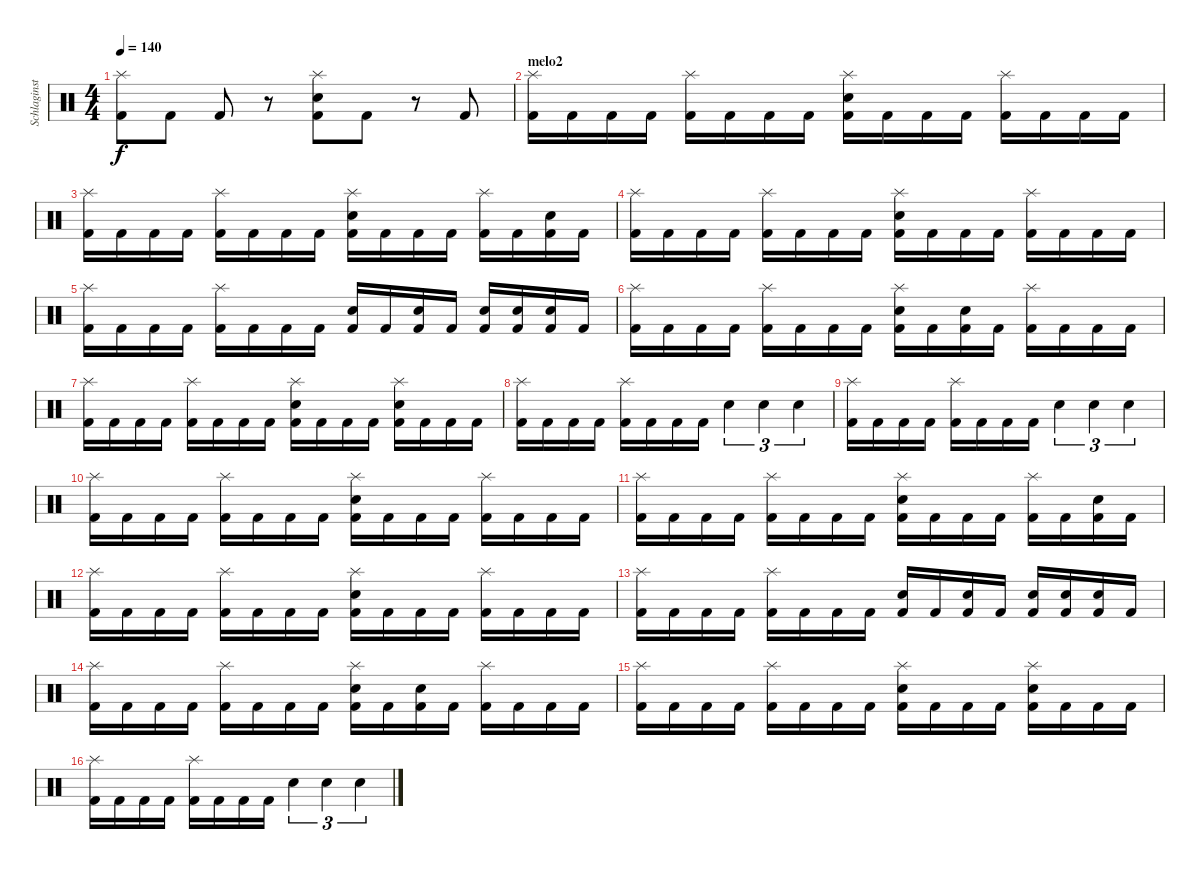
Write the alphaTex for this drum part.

\track ("Schlaginstrumente - Auswahl" "Schlaginst") {instrument percussion}
\staff {score}
\articulation defaults
\ts (4 4)
\tempo 140
\clef neutral
\ks c
("Splash (hit)" "Kick (hit) 2").8{dy f} "Kick (hit) 2".8 "Kick (hit) 2".8 r.8 ("Electric Snare (hit)" "Splash (hit)" "Kick (hit) 2").8 "Kick (hit) 2".8 r.8 "Kick (hit) 2".8 |
\section ("" "melo2")
("Splash (hit)" "Kick (hit) 2").16 "Kick (hit) 2".16 "Kick (hit) 2".16 "Kick (hit) 2".16 ("Splash (hit)" "Kick (hit) 2").16 "Kick (hit) 2".16 "Kick (hit) 2".16 "Kick (hit) 2".16 ("Electric Snare (hit)" "Splash (hit)" "Kick (hit) 2").16 "Kick (hit) 2".16 "Kick (hit) 2".16 "Kick (hit) 2".16 ("Splash (hit)" "Kick (hit) 2").16 "Kick (hit) 2".16 "Kick (hit) 2".16 "Kick (hit) 2".16 |
("Splash (hit)" "Kick (hit) 2").16 "Kick (hit) 2".16 "Kick (hit) 2".16 "Kick (hit) 2".16 ("Splash (hit)" "Kick (hit) 2").16 "Kick (hit) 2".16 "Kick (hit) 2".16 "Kick (hit) 2".16 ("Electric Snare (hit)" "Splash (hit)" "Kick (hit) 2").16 "Kick (hit) 2".16 "Kick (hit) 2".16 "Kick (hit) 2".16 ("Splash (hit)" "Kick (hit) 2").16 "Kick (hit) 2".16 ("Electric Snare (hit)" "Kick (hit) 2").16 "Kick (hit) 2".16 |
("Splash (hit)" "Kick (hit) 2").16 "Kick (hit) 2".16 "Kick (hit) 2".16 "Kick (hit) 2".16 ("Splash (hit)" "Kick (hit) 2").16 "Kick (hit) 2".16 "Kick (hit) 2".16 "Kick (hit) 2".16 ("Electric Snare (hit)" "Splash (hit)" "Kick (hit) 2").16 "Kick (hit) 2".16 "Kick (hit) 2".16 "Kick (hit) 2".16 ("Splash (hit)" "Kick (hit) 2").16 "Kick (hit) 2".16 "Kick (hit) 2".16 "Kick (hit) 2".16 |
("Splash (hit)" "Kick (hit) 2").16 "Kick (hit) 2".16 "Kick (hit) 2".16 "Kick (hit) 2".16 ("Splash (hit)" "Kick (hit) 2").16 "Kick (hit) 2".16 "Kick (hit) 2".16 "Kick (hit) 2".16 ("Electric Snare (hit)" "Kick (hit) 2").16 "Kick (hit) 2".16 ("Electric Snare (hit)" "Kick (hit) 2").16 "Kick (hit) 2".16 ("Electric Snare (hit)" "Kick (hit) 2").16 ("Electric Snare (hit)" "Kick (hit) 2").16 ("Electric Snare (hit)" "Kick (hit) 2").16 "Kick (hit) 2".16 |
("Splash (hit)" "Kick (hit) 2").16 "Kick (hit) 2".16 "Kick (hit) 2".16 "Kick (hit) 2".16 ("Splash (hit)" "Kick (hit) 2").16 "Kick (hit) 2".16 "Kick (hit) 2".16 "Kick (hit) 2".16 ("Electric Snare (hit)" "Splash (hit)" "Kick (hit) 2").16 "Kick (hit) 2".16 ("Electric Snare (hit)" "Kick (hit) 2").16 "Kick (hit) 2".16 ("Splash (hit)" "Kick (hit) 2").16 "Kick (hit) 2".16 "Kick (hit) 2".16 "Kick (hit) 2".16 |
("Splash (hit)" "Kick (hit) 2").16 "Kick (hit) 2".16 "Kick (hit) 2".16 "Kick (hit) 2".16 ("Splash (hit)" "Kick (hit) 2").16 "Kick (hit) 2".16 "Kick (hit) 2".16 "Kick (hit) 2".16 ("Electric Snare (hit)" "Splash (hit)" "Kick (hit) 2").16 "Kick (hit) 2".16 "Kick (hit) 2".16 "Kick (hit) 2".16 ("Electric Snare (hit)" "Splash (hit)" "Kick (hit) 2").16 "Kick (hit) 2".16 "Kick (hit) 2".16 "Kick (hit) 2".16 |
("Splash (hit)" "Kick (hit) 2").16 "Kick (hit) 2".16 "Kick (hit) 2".16 "Kick (hit) 2".16 ("Splash (hit)" "Kick (hit) 2").16 "Kick (hit) 2".16 "Kick (hit) 2".16 "Kick (hit) 2".16 "Electric Snare (hit)".4{tu (3 2)} "Electric Snare (hit)".4{tu (3 2)} "Electric Snare (hit)".4{tu (3 2)} |
("Splash (hit)" "Kick (hit) 2").16 "Kick (hit) 2".16 "Kick (hit) 2".16 "Kick (hit) 2".16 ("Splash (hit)" "Kick (hit) 2").16 "Kick (hit) 2".16 "Kick (hit) 2".16 "Kick (hit) 2".16 "Electric Snare (hit)".4{tu (3 2)} "Electric Snare (hit)".4{tu (3 2)} "Electric Snare (hit)".4{tu (3 2)} |
("Splash (hit)" "Kick (hit) 2").16 "Kick (hit) 2".16 "Kick (hit) 2".16 "Kick (hit) 2".16 ("Splash (hit)" "Kick (hit) 2").16 "Kick (hit) 2".16 "Kick (hit) 2".16 "Kick (hit) 2".16 ("Electric Snare (hit)" "Splash (hit)" "Kick (hit) 2").16 "Kick (hit) 2".16 "Kick (hit) 2".16 "Kick (hit) 2".16 ("Splash (hit)" "Kick (hit) 2").16 "Kick (hit) 2".16 "Kick (hit) 2".16 "Kick (hit) 2".16 |
("Splash (hit)" "Kick (hit) 2").16 "Kick (hit) 2".16 "Kick (hit) 2".16 "Kick (hit) 2".16 ("Splash (hit)" "Kick (hit) 2").16 "Kick (hit) 2".16 "Kick (hit) 2".16 "Kick (hit) 2".16 ("Electric Snare (hit)" "Splash (hit)" "Kick (hit) 2").16 "Kick (hit) 2".16 "Kick (hit) 2".16 "Kick (hit) 2".16 ("Splash (hit)" "Kick (hit) 2").16 "Kick (hit) 2".16 ("Electric Snare (hit)" "Kick (hit) 2").16 "Kick (hit) 2".16 |
("Splash (hit)" "Kick (hit) 2").16 "Kick (hit) 2".16 "Kick (hit) 2".16 "Kick (hit) 2".16 ("Splash (hit)" "Kick (hit) 2").16 "Kick (hit) 2".16 "Kick (hit) 2".16 "Kick (hit) 2".16 ("Electric Snare (hit)" "Splash (hit)" "Kick (hit) 2").16 "Kick (hit) 2".16 "Kick (hit) 2".16 "Kick (hit) 2".16 ("Splash (hit)" "Kick (hit) 2").16 "Kick (hit) 2".16 "Kick (hit) 2".16 "Kick (hit) 2".16 |
("Splash (hit)" "Kick (hit) 2").16 "Kick (hit) 2".16 "Kick (hit) 2".16 "Kick (hit) 2".16 ("Splash (hit)" "Kick (hit) 2").16 "Kick (hit) 2".16 "Kick (hit) 2".16 "Kick (hit) 2".16 ("Electric Snare (hit)" "Kick (hit) 2").16 "Kick (hit) 2".16 ("Electric Snare (hit)" "Kick (hit) 2").16 "Kick (hit) 2".16 ("Electric Snare (hit)" "Kick (hit) 2").16 ("Electric Snare (hit)" "Kick (hit) 2").16 ("Electric Snare (hit)" "Kick (hit) 2").16 "Kick (hit) 2".16 |
("Splash (hit)" "Kick (hit) 2").16 "Kick (hit) 2".16 "Kick (hit) 2".16 "Kick (hit) 2".16 ("Splash (hit)" "Kick (hit) 2").16 "Kick (hit) 2".16 "Kick (hit) 2".16 "Kick (hit) 2".16 ("Electric Snare (hit)" "Splash (hit)" "Kick (hit) 2").16 "Kick (hit) 2".16 ("Electric Snare (hit)" "Kick (hit) 2").16 "Kick (hit) 2".16 ("Splash (hit)" "Kick (hit) 2").16 "Kick (hit) 2".16 "Kick (hit) 2".16 "Kick (hit) 2".16 |
("Splash (hit)" "Kick (hit) 2").16 "Kick (hit) 2".16 "Kick (hit) 2".16 "Kick (hit) 2".16 ("Splash (hit)" "Kick (hit) 2").16 "Kick (hit) 2".16 "Kick (hit) 2".16 "Kick (hit) 2".16 ("Electric Snare (hit)" "Splash (hit)" "Kick (hit) 2").16 "Kick (hit) 2".16 "Kick (hit) 2".16 "Kick (hit) 2".16 ("Electric Snare (hit)" "Splash (hit)" "Kick (hit) 2").16 "Kick (hit) 2".16 "Kick (hit) 2".16 "Kick (hit) 2".16 |
("Splash (hit)" "Kick (hit) 2").16 "Kick (hit) 2".16 "Kick (hit) 2".16 "Kick (hit) 2".16 ("Splash (hit)" "Kick (hit) 2").16 "Kick (hit) 2".16 "Kick (hit) 2".16 "Kick (hit) 2".16 "Electric Snare (hit)".4{tu (3 2)} "Electric Snare (hit)".4{tu (3 2)} "Electric Snare (hit)".4{tu (3 2)}
